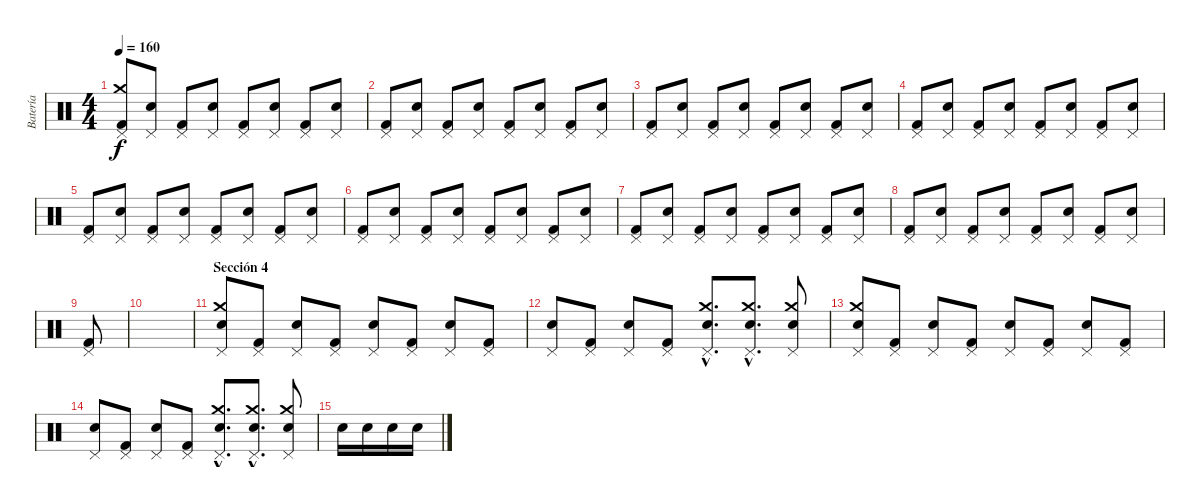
\track ("Batería" "Batería") {instrument percussion}
\staff {score}
\articulation defaults
\ts (4 4)
\tempo 160
\clef neutral
\ks c
("Pedal Hi-Hat (hit)" "Crash medium (hit)" "Kick (hit) 2").8{dy f} ("Pedal Hi-Hat (hit)" "Electric Snare (hit)").8 ("Pedal Hi-Hat (hit)" "Kick (hit) 2").8 ("Pedal Hi-Hat (hit)" "Electric Snare (hit)").8 ("Pedal Hi-Hat (hit)" "Kick (hit) 2").8 ("Pedal Hi-Hat (hit)" "Electric Snare (hit)").8 ("Pedal Hi-Hat (hit)" "Kick (hit) 2").8 ("Pedal Hi-Hat (hit)" "Electric Snare (hit)").8 |
("Pedal Hi-Hat (hit)" "Kick (hit) 2").8 ("Pedal Hi-Hat (hit)" "Electric Snare (hit)").8 ("Pedal Hi-Hat (hit)" "Kick (hit) 2").8 ("Pedal Hi-Hat (hit)" "Electric Snare (hit)").8 ("Pedal Hi-Hat (hit)" "Kick (hit) 2").8 ("Pedal Hi-Hat (hit)" "Electric Snare (hit)").8 ("Pedal Hi-Hat (hit)" "Kick (hit) 2").8 ("Pedal Hi-Hat (hit)" "Electric Snare (hit)").8 |
("Pedal Hi-Hat (hit)" "Kick (hit) 2").8 ("Pedal Hi-Hat (hit)" "Electric Snare (hit)").8 ("Pedal Hi-Hat (hit)" "Kick (hit) 2").8 ("Pedal Hi-Hat (hit)" "Electric Snare (hit)").8 ("Pedal Hi-Hat (hit)" "Kick (hit) 2").8 ("Pedal Hi-Hat (hit)" "Electric Snare (hit)").8 ("Pedal Hi-Hat (hit)" "Kick (hit) 2").8 ("Pedal Hi-Hat (hit)" "Electric Snare (hit)").8 |
("Pedal Hi-Hat (hit)" "Kick (hit) 2").8 ("Pedal Hi-Hat (hit)" "Electric Snare (hit)").8 ("Pedal Hi-Hat (hit)" "Kick (hit) 2").8 ("Pedal Hi-Hat (hit)" "Electric Snare (hit)").8 ("Pedal Hi-Hat (hit)" "Kick (hit) 2").8 ("Pedal Hi-Hat (hit)" "Electric Snare (hit)").8 ("Pedal Hi-Hat (hit)" "Kick (hit) 2").8 ("Pedal Hi-Hat (hit)" "Electric Snare (hit)").8 |
("Pedal Hi-Hat (hit)" "Kick (hit) 2").8 ("Pedal Hi-Hat (hit)" "Electric Snare (hit)").8 ("Pedal Hi-Hat (hit)" "Kick (hit) 2").8 ("Pedal Hi-Hat (hit)" "Electric Snare (hit)").8 ("Pedal Hi-Hat (hit)" "Kick (hit) 2").8 ("Pedal Hi-Hat (hit)" "Electric Snare (hit)").8 ("Pedal Hi-Hat (hit)" "Kick (hit) 2").8 ("Pedal Hi-Hat (hit)" "Electric Snare (hit)").8 |
("Pedal Hi-Hat (hit)" "Kick (hit) 2").8 ("Pedal Hi-Hat (hit)" "Electric Snare (hit)").8 ("Pedal Hi-Hat (hit)" "Kick (hit) 2").8 ("Pedal Hi-Hat (hit)" "Electric Snare (hit)").8 ("Pedal Hi-Hat (hit)" "Kick (hit) 2").8 ("Pedal Hi-Hat (hit)" "Electric Snare (hit)").8 ("Pedal Hi-Hat (hit)" "Kick (hit) 2").8 ("Pedal Hi-Hat (hit)" "Electric Snare (hit)").8 |
("Pedal Hi-Hat (hit)" "Kick (hit) 2").8 ("Pedal Hi-Hat (hit)" "Electric Snare (hit)").8 ("Pedal Hi-Hat (hit)" "Kick (hit) 2").8 ("Pedal Hi-Hat (hit)" "Electric Snare (hit)").8 ("Pedal Hi-Hat (hit)" "Kick (hit) 2").8 ("Pedal Hi-Hat (hit)" "Electric Snare (hit)").8 ("Pedal Hi-Hat (hit)" "Kick (hit) 2").8 ("Pedal Hi-Hat (hit)" "Electric Snare (hit)").8 |
("Pedal Hi-Hat (hit)" "Kick (hit) 2").8 ("Pedal Hi-Hat (hit)" "Electric Snare (hit)").8 ("Pedal Hi-Hat (hit)" "Kick (hit) 2").8 ("Pedal Hi-Hat (hit)" "Electric Snare (hit)").8 ("Pedal Hi-Hat (hit)" "Kick (hit) 2").8 ("Pedal Hi-Hat (hit)" "Electric Snare (hit)").8 ("Pedal Hi-Hat (hit)" "Kick (hit) 2").8 ("Pedal Hi-Hat (hit)" "Electric Snare (hit)").8 |
("Pedal Hi-Hat (hit)" "Kick (hit) 2").8 |
|
\section ("" "Sección 4")
("Pedal Hi-Hat (hit)" "Crash medium (hit)" "Electric Snare (hit)").8 ("Pedal Hi-Hat (hit)" "Kick (hit) 2").8 ("Pedal Hi-Hat (hit)" "Electric Snare (hit)").8 ("Pedal Hi-Hat (hit)" "Kick (hit) 2").8 ("Pedal Hi-Hat (hit)" "Electric Snare (hit)").8 ("Pedal Hi-Hat (hit)" "Kick (hit) 2").8 ("Pedal Hi-Hat (hit)" "Electric Snare (hit)").8 ("Pedal Hi-Hat (hit)" "Kick (hit) 2").8 |
("Pedal Hi-Hat (hit)" "Electric Snare (hit)").8 ("Pedal Hi-Hat (hit)" "Kick (hit) 2").8 ("Pedal Hi-Hat (hit)" "Electric Snare (hit)").8 ("Pedal Hi-Hat (hit)" "Kick (hit) 2").8 ("Pedal Hi-Hat (hit)"{hac} "Crash medium (hit)"{hac} "Electric Snare (hit)"{hac}).8{d} ("Pedal Hi-Hat (hit)"{hac} "Crash medium (hit)"{hac} "Electric Snare (hit)"{hac}).8{d} ("Pedal Hi-Hat (hit)" "Crash medium (hit)" "Electric Snare (hit)").8 |
("Pedal Hi-Hat (hit)" "Crash medium (hit)" "Electric Snare (hit)").8 ("Pedal Hi-Hat (hit)" "Kick (hit) 2").8 ("Pedal Hi-Hat (hit)" "Electric Snare (hit)").8 ("Pedal Hi-Hat (hit)" "Kick (hit) 2").8 ("Pedal Hi-Hat (hit)" "Electric Snare (hit)").8 ("Pedal Hi-Hat (hit)" "Kick (hit) 2").8 ("Pedal Hi-Hat (hit)" "Electric Snare (hit)").8 ("Pedal Hi-Hat (hit)" "Kick (hit) 2").8 |
("Pedal Hi-Hat (hit)" "Electric Snare (hit)").8 ("Pedal Hi-Hat (hit)" "Kick (hit) 2").8 ("Pedal Hi-Hat (hit)" "Electric Snare (hit)").8 ("Pedal Hi-Hat (hit)" "Kick (hit) 2").8 ("Pedal Hi-Hat (hit)"{hac} "Crash medium (hit)"{hac} "Electric Snare (hit)"{hac}).8{d} ("Pedal Hi-Hat (hit)"{hac} "Crash medium (hit)"{hac} "Electric Snare (hit)"{hac}).8{d} ("Pedal Hi-Hat (hit)" "Crash medium (hit)" "Electric Snare (hit)").8 |
"Electric Snare (hit)".16 "Electric Snare (hit)".16 "Electric Snare (hit)".16 "Electric Snare (hit)".16
